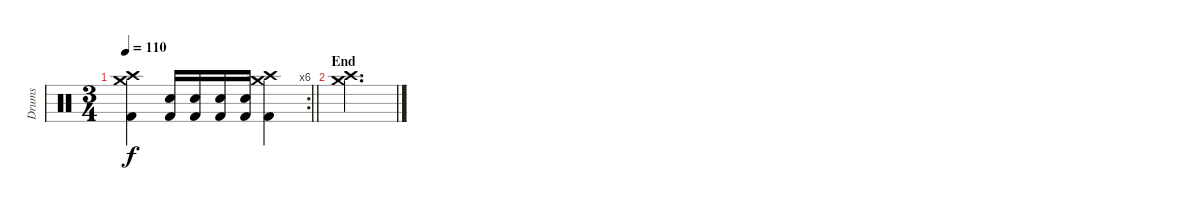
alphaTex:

\track ("Drums" "Drums") {instrument percussion}
\staff {score}
\articulation defaults
\rc 6
\ts (3 4)
\tempo 110
\clef neutral
\barLineRight lightlight
\ks c
("Crash high (hit)" "Crash medium (hit)" "Kick (hit) 2").4{dy f} ("Electric Snare (hit)" "Kick (hit) 2").16 ("Electric Snare (hit)" "Kick (hit) 2").16 ("Electric Snare (hit)" "Kick (hit) 2").16 ("Electric Snare (hit)" "Kick (hit) 2").16 ("Crash high (hit)" "Crash medium (hit)" "Kick (hit) 2").4 |
\section ("" "End")
("Crash high (hit)" "Crash medium (hit)").2{d}
